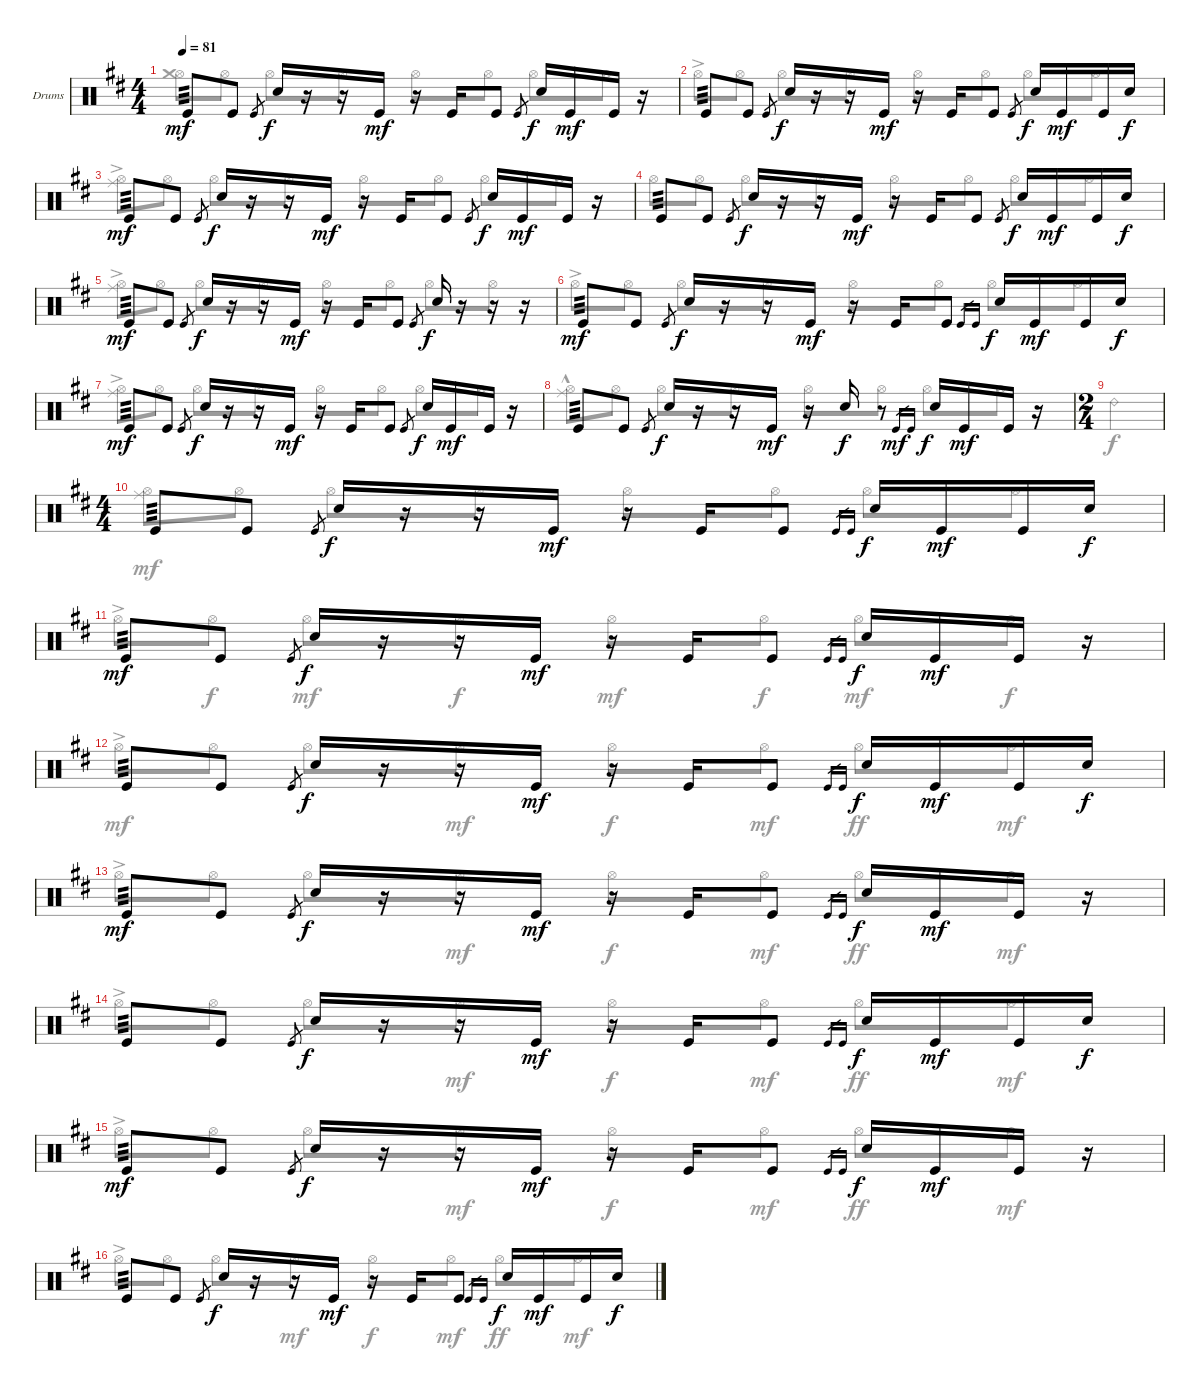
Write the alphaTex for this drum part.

\defaultSystemsLayout 4
\bracketExtendMode groupsimilarinstruments
\firstSystemTrackNameOrientation horizontal
\otherSystemsTrackNameOrientation horizontal
\track ("Drumkit" "Drums") {instrument percussion}
\staff {score}
\articulation defaults
\voice
\ts (4 4)
\scale
0.617477
\tempo 81
\accidentals auto
\clef neutral
\ottava regular
\simile none
\ks bminor "Kick (hit)".8{tp 3 dy mf} "Kick (hit)".8 "Kick (hit)".8{gr} "Snare (hit) 2".16{dy f}
r.16 r.16 "Kick (hit)".16{dy mf} r.16 "Kick (hit)".16 "Kick (hit)".8 "Kick (hit)".8{gr} "Snare (hit) 2".16{dy f} "Kick (hit)".16{dy mf} "Kick (hit)".16 r.16 |
\scale
0.382345 "Kick (hit)".8{tp 3} "Kick (hit)".8 "Kick (hit)".8{gr} "Snare (hit) 2".16{dy f} r.16 r.16 "Kick (hit)".16{dy mf} r.16 "Kick (hit)".16 "Kick (hit)".8 "Kick (hit)".8{gr} "Snare (hit) 2".16{dy f} "Kick (hit)".16{dy mf} "Kick (hit)".16 "Snare (hit) 2".16{dy f} |
\scale
0.552721 "Kick (hit)".8{tp 3 dy mf} "Kick (hit)".8 "Kick (hit)".8{gr} "Snare (hit) 2".16{dy f} r.16 r.16 "Kick (hit)".16{dy mf} r.16 "Kick (hit)".16 "Kick (hit)".8 "Kick (hit)".8{gr} "Snare (hit) 2".16{dy f} "Kick (hit)".16{dy mf} "Kick (hit)".16 r.16 |
\scale
0.447256 "Kick (hit)".8{tp 3} "Kick (hit)".8 "Kick (hit)".8{gr} "Snare (hit) 2".16{dy f} r.16 r.16 "Kick (hit)".16{dy mf} r.16 "Kick (hit)".16 "Kick (hit)".8 "Kick (hit)".8{gr} "Snare (hit) 2".16{dy f} "Kick (hit)".16{dy mf} "Kick (hit)".16 "Snare (hit) 2".16{dy f} |
\scale
0.532537 "Kick (hit)".8{tp 3 dy mf} "Kick (hit)".8 "Kick (hit)".8{gr} "Snare (hit) 2".16{dy f} r.16 r.16 "Kick (hit)".16{dy mf} r.16 "Kick (hit)".16 "Kick (hit)".8 "Kick (hit)".8{gr} "Snare (hit) 2".16{dy f} r.16 r.16 r.16 |
\scale
0.46749 "Kick (hit)".8{tp 3 dy mf} "Kick (hit)".8 "Kick (hit)".8{gr} "Snare (hit) 2".16{dy f} r.16 r.16 "Kick (hit)".16{dy mf} r.16 "Kick (hit)".16 "Kick (hit)".8 "Kick (hit)".16{gr} "Kick (hit)".16{gr} "Snare (hit) 2".16{dy f} "Kick (hit)".16{dy mf} "Kick (hit)".16 "Snare (hit) 2".16{dy f} |
\scale
0.419768 "Kick (hit)".8{tp 3 dy mf} "Kick (hit)".8 "Kick (hit)".8{gr} "Snare (hit) 2".16{dy f} r.16 r.16 "Kick (hit)".16{dy mf} r.16 "Kick (hit)".16 "Kick (hit)".8 "Kick (hit)".8{gr} "Snare (hit) 2".16{dy f} "Kick (hit)".16{dy mf} "Kick (hit)".16 r.16 |
\scale
0.292215 "Kick (hit)".8{tp 3} "Kick (hit)".8 "Kick (hit)".8{gr} "Snare (hit) 2".16{dy f} r.16 r.16 "Kick (hit)".16{dy mf} r.16 "Snare (hit) 2".16{dy f} r.8 "Kick (hit)".16{gr dy mf} "Kick (hit)".16{gr} "Snare (hit) 2".16{dy f} "Kick (hit)".16{dy mf} "Kick (hit)".16 r.16 |
\ts (2 4)
\scale
0.288763 |
\ts (4 4)
"Kick (hit)".8{tp 3} "Kick (hit)".8 "Kick (hit)".8{gr} "Snare (hit) 2".16{dy f} r.16 r.16 "Kick (hit)".16{dy mf} r.16 "Kick (hit)".16 "Kick (hit)".8 "Kick (hit)".16{gr} "Kick (hit)".16{gr} "Snare (hit) 2".16{dy f} "Kick (hit)".16{dy mf} "Kick (hit)".16 "Snare (hit) 2".16{dy f} |
"Kick (hit)".8{tp 3 dy mf} "Kick (hit)".8 "Kick (hit)".8{gr} "Snare (hit) 2".16{dy f} r.16 r.16 "Kick (hit)".16{dy mf} r.16 "Kick (hit)".16 "Kick (hit)".8 "Kick (hit)".16{gr} "Kick (hit)".16{gr} "Snare (hit) 2".16{dy f} "Kick (hit)".16{dy mf} "Kick (hit)".16 r.16 |
"Kick (hit)".8{tp 3} "Kick (hit)".8 "Kick (hit)".8{gr} "Snare (hit) 2".16{dy f} r.16 r.16 "Kick (hit)".16{dy mf} r.16 "Kick (hit)".16 "Kick (hit)".8 "Kick (hit)".16{gr} "Kick (hit)".16{gr} "Snare (hit) 2".16{dy f} "Kick (hit)".16{dy mf} "Kick (hit)".16 "Snare (hit) 2".16{dy f} |
"Kick (hit)".8{tp 3 dy mf} "Kick (hit)".8 "Kick (hit)".8{gr} "Snare (hit) 2".16{dy f} r.16 r.16 "Kick (hit)".16{dy mf} r.16 "Kick (hit)".16 "Kick (hit)".8 "Kick (hit)".16{gr} "Kick (hit)".16{gr} "Snare (hit) 2".16{dy f} "Kick (hit)".16{dy mf} "Kick (hit)".16 r.16 |
"Kick (hit)".8{tp 3} "Kick (hit)".8 "Kick (hit)".8{gr} "Snare (hit) 2".16{dy f} r.16 r.16 "Kick (hit)".16{dy mf} r.16 "Kick (hit)".16 "Kick (hit)".8 "Kick (hit)".16{gr} "Kick (hit)".16{gr} "Snare (hit) 2".16{dy f} "Kick (hit)".16{dy mf} "Kick (hit)".16 "Snare (hit) 2".16{dy f} |
"Kick (hit)".8{tp 3 dy mf} "Kick (hit)".8 "Kick (hit)".8{gr} "Snare (hit) 2".16{dy f} r.16 r.16 "Kick (hit)".16{dy mf} r.16 "Kick (hit)".16 "Kick (hit)".8 "Kick (hit)".16{gr} "Kick (hit)".16{gr} "Snare (hit) 2".16{dy f} "Kick (hit)".16{dy mf} "Kick (hit)".16 r.16 |
"Kick (hit)".8{tp 3} "Kick (hit)".8 "Kick (hit)".8{gr} "Snare (hit) 2".16{dy f} r.16 r.16 "Kick (hit)".16{dy mf} r.16 "Kick (hit)".16 "Kick (hit)".8 "Kick (hit)".16{gr} "Kick (hit)".16{gr} "Snare (hit) 2".16{dy f} "Kick (hit)".16{dy mf} "Kick (hit)".16 "Snare (hit) 2".16{dy f}
\voice
\clef neutral
\ottava regular
\simile none
\ks bminor
("Hi-Hat (open)" "Crash medium (hit)").8{dy mf} "Hi-Hat (open)".8 "Hi-Hat (open)".8 "Hi-Hat (open)".8 "Hi-Hat (open)".8 "Hi-Hat (open)".8 "Hi-Hat (open)".8 "Hi-Hat (open)".8 |
"Hi-Hat (open)"{ac}.8 "Hi-Hat (open)".8 "Hi-Hat (open)".8 "Hi-Hat (open)".8 "Hi-Hat (open)".8 "Hi-Hat (open)".8 "Hi-Hat (open)".8 "Hi-Hat (open)".8 |
("Hi-Hat (open)"{ac} "Ride (middle)"{ac}).8 "Hi-Hat (open)".8 "Hi-Hat (open)".8 "Hi-Hat (open)".8 "Hi-Hat (open)".8 "Hi-Hat (open)".8 "Hi-Hat (open)".8 "Hi-Hat (open)".8 |
"Hi-Hat (open)".8 "Hi-Hat (open)".8 "Hi-Hat (open)".8 "Hi-Hat (open)".8 "Hi-Hat (open)".8 "Hi-Hat (open)".8 "Hi-Hat (open)".8 "Hi-Hat (open)".8 |
("Hi-Hat (open)"{ac} "Ride (middle)"{ac}).8 "Hi-Hat (open)".8 "Hi-Hat (open)".8 "Hi-Hat (open)".8 "Hi-Hat (open)".8 "Hi-Hat (open)".8 "Hi-Hat (open)".8 "Hi-Hat (open)".8 |
"Hi-Hat (open)"{ac}.8 "Hi-Hat (open)".8 "Hi-Hat (open)".8 "Hi-Hat (open)".8 "Hi-Hat (open)".8 "Hi-Hat (open)".8 "Hi-Hat (open)".8 "Hi-Hat (open)".8 |
("Hi-Hat (open)"{ac} "Ride (middle)"{ac}).8 "Hi-Hat (open)".8 "Hi-Hat (open)".8 "Hi-Hat (open)".8 "Hi-Hat (open)".8 "Hi-Hat (open)".8 "Hi-Hat (open)".8 "Hi-Hat (open)".8 |
("Hi-Hat (open)"{hac} "Ride (middle)"{hac}).8 "Hi-Hat (open)".8 "Hi-Hat (open)".8 "Hi-Hat (open)".8 "Hi-Hat (open)".8 "Hi-Hat (open)".8 "Hi-Hat (open)".8 "Hi-Hat (open)".8 |
"Ride (bell) 2".2{dy f} |
("Hi-Hat (open)" "Ride (middle)").8{dy mf} "Hi-Hat (open)".8 "Hi-Hat (open)".8 "Hi-Hat (open)".8 "Hi-Hat (open)".8 "Hi-Hat (open)".8 "Hi-Hat (open)".8 "Hi-Hat (open)".8 |
"Hi-Hat (open)"{ac}.8 "Hi-Hat (open)".8{dy f} "Hi-Hat (open)".8{dy mf} "Hi-Hat (open)".8{dy f} "Hi-Hat (open)".8{dy mf} "Hi-Hat (open)".8{dy f} "Hi-Hat (open)".8{dy mf} "Hi-Hat (open)".8{dy f} |
"Hi-Hat (open)"{ac}.8{dy mf} "Hi-Hat (open)".8 "Hi-Hat (open)".8{dy f} "Hi-Hat (open)".8{dy mf} "Hi-Hat (open)".8{dy f} "Hi-Hat (open)".8{dy mf} "Hi-Hat (open)".8{dy ff} "Hi-Hat (open)".8{dy mf} |
"Hi-Hat (open)"{ac}.8 "Hi-Hat (open)".8 "Hi-Hat (open)".8{dy f} "Hi-Hat (open)".8{dy mf} "Hi-Hat (open)".8{dy f} "Hi-Hat (open)".8{dy mf} "Hi-Hat (open)".8{dy ff} "Hi-Hat (open)".8{dy mf} |
"Hi-Hat (open)"{ac}.8 "Hi-Hat (open)".8 "Hi-Hat (open)".8{dy f} "Hi-Hat (open)".8{dy mf} "Hi-Hat (open)".8{dy f} "Hi-Hat (open)".8{dy mf} "Hi-Hat (open)".8{dy ff} "Hi-Hat (open)".8{dy mf} |
"Hi-Hat (open)"{ac}.8 "Hi-Hat (open)".8 "Hi-Hat (open)".8{dy f} "Hi-Hat (open)".8{dy mf} "Hi-Hat (open)".8{dy f} "Hi-Hat (open)".8{dy mf} "Hi-Hat (open)".8{dy ff} "Hi-Hat (open)".8{dy mf} |
"Hi-Hat (open)"{ac}.8 "Hi-Hat (open)".8 "Hi-Hat (open)".8{dy f} "Hi-Hat (open)".8{dy mf} "Hi-Hat (open)".8{dy f} "Hi-Hat (open)".8{dy mf} "Hi-Hat (open)".8{dy ff} "Hi-Hat (open)".8{dy mf}
